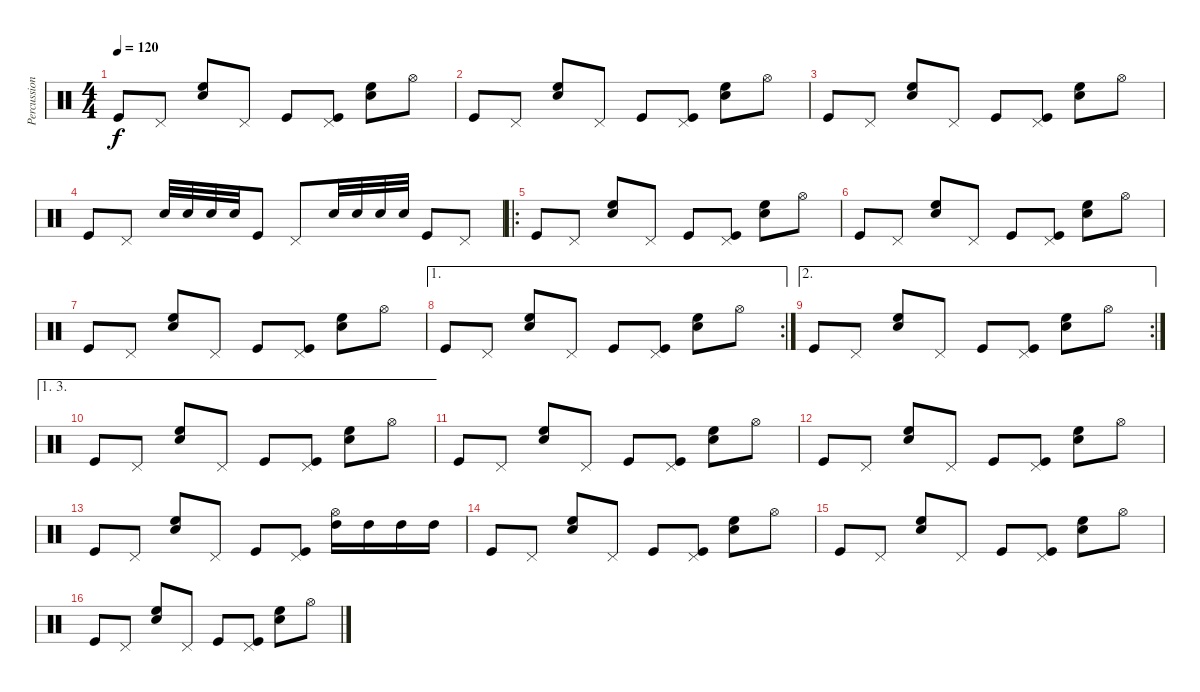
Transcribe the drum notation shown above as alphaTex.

\track ("Percussion" "Percussion") {instrument percussion}
\staff {score}
\articulation defaults
\ts (4 4)
\tempo 120
\clef neutral
\ks c "Kick (hit)".8{dy f} "Pedal Hi-Hat (hit)".8
("Electric Snare (hit)" "High Floor Tom (hit)").8 "Pedal Hi-Hat (hit)".8 "Kick (hit)".8 ("Pedal Hi-Hat (hit)" "Kick (hit)").8 ("Electric Snare (hit)" "High Floor Tom (hit)").8 "Hi-Hat (open)".8 |
"Kick (hit)".8 "Pedal Hi-Hat (hit)".8 ("Electric Snare (hit)" "High Floor Tom (hit)").8 "Pedal Hi-Hat (hit)".8 "Kick (hit)".8 ("Pedal Hi-Hat (hit)" "Kick (hit)").8 ("Electric Snare (hit)" "High Floor Tom (hit)").8 "Hi-Hat (open)".8 |
"Kick (hit)".8 "Pedal Hi-Hat (hit)".8 ("Electric Snare (hit)" "High Floor Tom (hit)").8 "Pedal Hi-Hat (hit)".8 "Kick (hit)".8 ("Pedal Hi-Hat (hit)" "Kick (hit)").8 ("Electric Snare (hit)" "High Floor Tom (hit)").8 "Hi-Hat (open)".8 |
"Kick (hit)".8 "Pedal Hi-Hat (hit)".8 "Snare (hit) 2".32 "Snare (hit) 2".32 "Snare (hit) 2".32 "Snare (hit) 2".32 "Kick (hit)".8 "Pedal Hi-Hat (hit)".8 "Snare (hit) 2".32 "Snare (hit) 2".32 "Snare (hit) 2".32 "Snare (hit) 2".32 "Kick (hit)".8 "Pedal Hi-Hat (hit)".8 |
\ro "Kick (hit)".8 "Pedal Hi-Hat (hit)".8
("Electric Snare (hit)" "High Floor Tom (hit)").8 "Pedal Hi-Hat (hit)".8 "Kick (hit)".8 ("Pedal Hi-Hat (hit)" "Kick (hit)").8 ("Electric Snare (hit)" "High Floor Tom (hit)").8 "Hi-Hat (open)".8 |
"Kick (hit)".8 "Pedal Hi-Hat (hit)".8 ("Electric Snare (hit)" "High Floor Tom (hit)").8 "Pedal Hi-Hat (hit)".8 "Kick (hit)".8 ("Pedal Hi-Hat (hit)" "Kick (hit)").8 ("Electric Snare (hit)" "High Floor Tom (hit)").8 "Hi-Hat (open)".8 |
"Kick (hit)".8 "Pedal Hi-Hat (hit)".8 ("Electric Snare (hit)" "High Floor Tom (hit)").8 "Pedal Hi-Hat (hit)".8 "Kick (hit)".8 ("Pedal Hi-Hat (hit)" "Kick (hit)").8 ("Electric Snare (hit)" "High Floor Tom (hit)").8 "Hi-Hat (open)".8 |
\ae 1
\rc 2 "Kick (hit)".8 "Pedal Hi-Hat (hit)".8
("Electric Snare (hit)" "High Floor Tom (hit)").8 "Pedal Hi-Hat (hit)".8 "Kick (hit)".8 ("Pedal Hi-Hat (hit)" "Kick (hit)").8 ("Electric Snare (hit)" "High Floor Tom (hit)").8 "Hi-Hat (open)".8 |
\ae 2
\rc 2 "Kick (hit)".8 "Pedal Hi-Hat (hit)".8
("Electric Snare (hit)" "High Floor Tom (hit)").8 "Pedal Hi-Hat (hit)".8 "Kick (hit)".8 ("Pedal Hi-Hat (hit)" "Kick (hit)").8 ("Electric Snare (hit)" "High Floor Tom (hit)").8 "Hi-Hat (open)".8 |
\ae (1 3)
"Kick (hit)".8 "Pedal Hi-Hat (hit)".8 ("Electric Snare (hit)" "High Floor Tom (hit)").8 "Pedal Hi-Hat (hit)".8 "Kick (hit)".8 ("Pedal Hi-Hat (hit)" "Kick (hit)").8 ("Electric Snare (hit)" "High Floor Tom (hit)").8 "Hi-Hat (open)".8 |
"Kick (hit)".8 "Pedal Hi-Hat (hit)".8 ("Electric Snare (hit)" "High Floor Tom (hit)").8 "Pedal Hi-Hat (hit)".8 "Kick (hit)".8 ("Pedal Hi-Hat (hit)" "Kick (hit)").8 ("Electric Snare (hit)" "High Floor Tom (hit)").8 "Hi-Hat (open)".8 |
"Kick (hit)".8 "Pedal Hi-Hat (hit)".8 ("Electric Snare (hit)" "High Floor Tom (hit)").8 "Pedal Hi-Hat (hit)".8 "Kick (hit)".8 ("Pedal Hi-Hat (hit)" "Kick (hit)").8 ("Electric Snare (hit)" "High Floor Tom (hit)").8 "Hi-Hat (open)".8 |
"Kick (hit)".8 "Pedal Hi-Hat (hit)".8 ("Electric Snare (hit)" "High Floor Tom (hit)").8 "Pedal Hi-Hat (hit)".8 "Kick (hit)".8 ("Pedal Hi-Hat (hit)" "Kick (hit)").8 ("Hi-Hat (open)" "High Tom (hit)").16 "High Tom (hit)".16 "High Tom (hit)".16 "High Tom (hit)".16 |
"Kick (hit)".8 "Pedal Hi-Hat (hit)".8 ("Electric Snare (hit)" "High Floor Tom (hit)").8 "Pedal Hi-Hat (hit)".8 "Kick (hit)".8 ("Pedal Hi-Hat (hit)" "Kick (hit)").8 ("Electric Snare (hit)" "High Floor Tom (hit)").8 "Hi-Hat (open)".8 |
"Kick (hit)".8 "Pedal Hi-Hat (hit)".8 ("Electric Snare (hit)" "High Floor Tom (hit)").8 "Pedal Hi-Hat (hit)".8 "Kick (hit)".8 ("Pedal Hi-Hat (hit)" "Kick (hit)").8 ("Electric Snare (hit)" "High Floor Tom (hit)").8 "Hi-Hat (open)".8 |
"Kick (hit)".8 "Pedal Hi-Hat (hit)".8 ("Electric Snare (hit)" "High Floor Tom (hit)").8 "Pedal Hi-Hat (hit)".8 "Kick (hit)".8 ("Pedal Hi-Hat (hit)" "Kick (hit)").8 ("Electric Snare (hit)" "High Floor Tom (hit)").8 "Hi-Hat (open)".8
